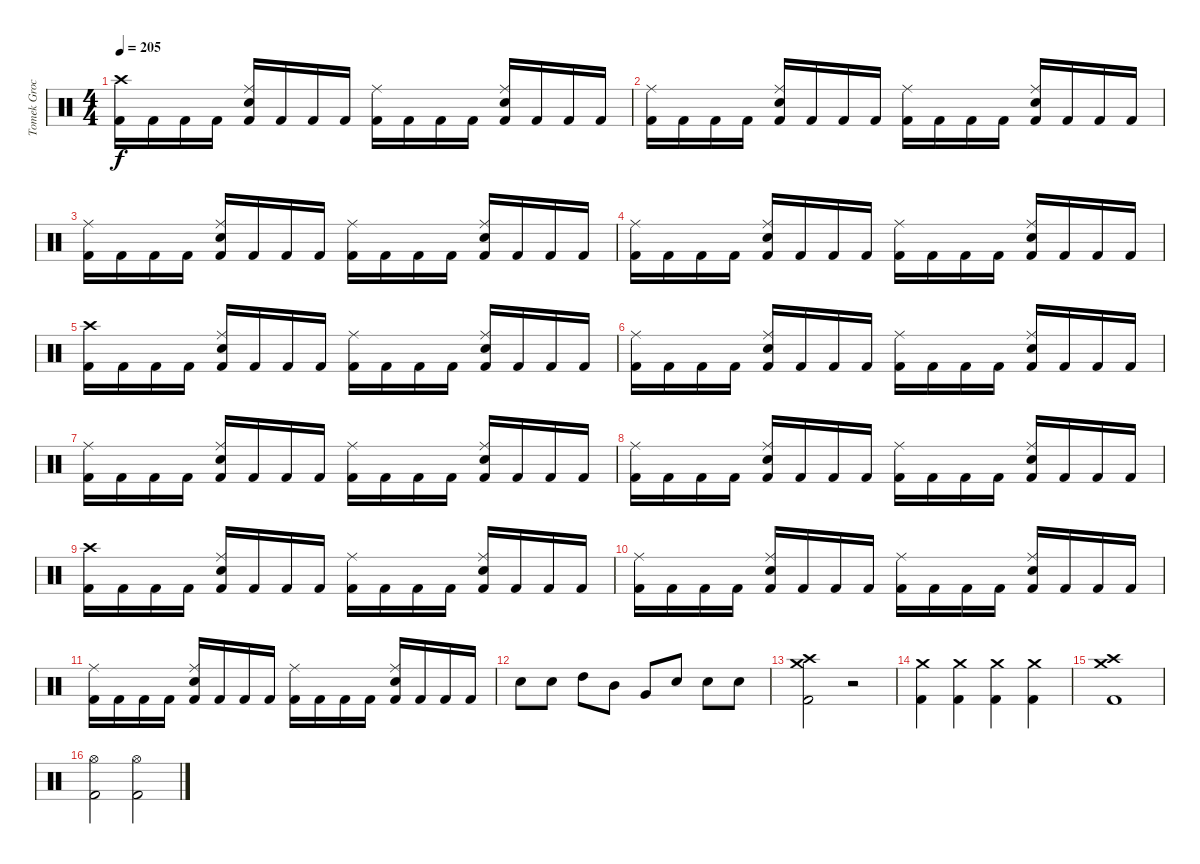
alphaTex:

\track ("Tomek Grochowski" "Tomek Groc") {instrument percussion}
\staff {score}
\articulation defaults
\ts (4 4)
\tempo 205
\clef neutral
\ks c
("Crash high (hit)" "Kick (hit) 2").16{dy f} "Kick (hit) 2".16 "Kick (hit) 2".16 "Kick (hit) 2".16 ("Ride (middle)" "Electric Snare (hit)" "Kick (hit) 2").16 "Kick (hit) 2".16 "Kick (hit) 2".16 "Kick (hit) 2".16 ("Ride (middle)" "Kick (hit) 2").16 "Kick (hit) 2".16 "Kick (hit) 2".16 "Kick (hit) 2".16 ("Ride (middle)" "Electric Snare (hit)" "Kick (hit) 2").16 "Kick (hit) 2".16 "Kick (hit) 2".16 "Kick (hit) 2".16 |
("Ride (middle)" "Kick (hit) 2").16 "Kick (hit) 2".16 "Kick (hit) 2".16 "Kick (hit) 2".16 ("Ride (middle)" "Electric Snare (hit)" "Kick (hit) 2").16 "Kick (hit) 2".16 "Kick (hit) 2".16 "Kick (hit) 2".16 ("Ride (middle)" "Kick (hit) 2").16 "Kick (hit) 2".16 "Kick (hit) 2".16 "Kick (hit) 2".16 ("Ride (middle)" "Electric Snare (hit)" "Kick (hit) 2").16 "Kick (hit) 2".16 "Kick (hit) 2".16 "Kick (hit) 2".16 |
("Ride (middle)" "Kick (hit) 2").16 "Kick (hit) 2".16 "Kick (hit) 2".16 "Kick (hit) 2".16 ("Ride (middle)" "Electric Snare (hit)" "Kick (hit) 2").16 "Kick (hit) 2".16 "Kick (hit) 2".16 "Kick (hit) 2".16 ("Ride (middle)" "Kick (hit) 2").16 "Kick (hit) 2".16 "Kick (hit) 2".16 "Kick (hit) 2".16 ("Ride (middle)" "Electric Snare (hit)" "Kick (hit) 2").16 "Kick (hit) 2".16 "Kick (hit) 2".16 "Kick (hit) 2".16 |
("Ride (middle)" "Kick (hit) 2").16 "Kick (hit) 2".16 "Kick (hit) 2".16 "Kick (hit) 2".16 ("Ride (middle)" "Electric Snare (hit)" "Kick (hit) 2").16 "Kick (hit) 2".16 "Kick (hit) 2".16 "Kick (hit) 2".16 ("Ride (middle)" "Kick (hit) 2").16 "Kick (hit) 2".16 "Kick (hit) 2".16 "Kick (hit) 2".16 ("Ride (middle)" "Electric Snare (hit)" "Kick (hit) 2").16 "Kick (hit) 2".16 "Kick (hit) 2".16 "Kick (hit) 2".16 |
("Crash high (hit)" "Kick (hit) 2").16 "Kick (hit) 2".16 "Kick (hit) 2".16 "Kick (hit) 2".16 ("Ride (middle)" "Electric Snare (hit)" "Kick (hit) 2").16 "Kick (hit) 2".16 "Kick (hit) 2".16 "Kick (hit) 2".16 ("Ride (middle)" "Kick (hit) 2").16 "Kick (hit) 2".16 "Kick (hit) 2".16 "Kick (hit) 2".16 ("Ride (middle)" "Electric Snare (hit)" "Kick (hit) 2").16 "Kick (hit) 2".16 "Kick (hit) 2".16 "Kick (hit) 2".16 |
("Ride (middle)" "Kick (hit) 2").16 "Kick (hit) 2".16 "Kick (hit) 2".16 "Kick (hit) 2".16 ("Ride (middle)" "Electric Snare (hit)" "Kick (hit) 2").16 "Kick (hit) 2".16 "Kick (hit) 2".16 "Kick (hit) 2".16 ("Ride (middle)" "Kick (hit) 2").16 "Kick (hit) 2".16 "Kick (hit) 2".16 "Kick (hit) 2".16 ("Ride (middle)" "Electric Snare (hit)" "Kick (hit) 2").16 "Kick (hit) 2".16 "Kick (hit) 2".16 "Kick (hit) 2".16 |
("Ride (middle)" "Kick (hit) 2").16 "Kick (hit) 2".16 "Kick (hit) 2".16 "Kick (hit) 2".16 ("Ride (middle)" "Electric Snare (hit)" "Kick (hit) 2").16 "Kick (hit) 2".16 "Kick (hit) 2".16 "Kick (hit) 2".16 ("Ride (middle)" "Kick (hit) 2").16 "Kick (hit) 2".16 "Kick (hit) 2".16 "Kick (hit) 2".16 ("Ride (middle)" "Electric Snare (hit)" "Kick (hit) 2").16 "Kick (hit) 2".16 "Kick (hit) 2".16 "Kick (hit) 2".16 |
("Ride (middle)" "Kick (hit) 2").16 "Kick (hit) 2".16 "Kick (hit) 2".16 "Kick (hit) 2".16 ("Ride (middle)" "Electric Snare (hit)" "Kick (hit) 2").16 "Kick (hit) 2".16 "Kick (hit) 2".16 "Kick (hit) 2".16 ("Ride (middle)" "Kick (hit) 2").16 "Kick (hit) 2".16 "Kick (hit) 2".16 "Kick (hit) 2".16 ("Ride (middle)" "Electric Snare (hit)" "Kick (hit) 2").16 "Kick (hit) 2".16 "Kick (hit) 2".16 "Kick (hit) 2".16 |
("Crash high (hit)" "Kick (hit) 2").16 "Kick (hit) 2".16 "Kick (hit) 2".16 "Kick (hit) 2".16 ("Ride (middle)" "Electric Snare (hit)" "Kick (hit) 2").16 "Kick (hit) 2".16 "Kick (hit) 2".16 "Kick (hit) 2".16 ("Ride (middle)" "Kick (hit) 2").16 "Kick (hit) 2".16 "Kick (hit) 2".16 "Kick (hit) 2".16 ("Ride (middle)" "Electric Snare (hit)" "Kick (hit) 2").16 "Kick (hit) 2".16 "Kick (hit) 2".16 "Kick (hit) 2".16 |
("Ride (middle)" "Kick (hit) 2").16 "Kick (hit) 2".16 "Kick (hit) 2".16 "Kick (hit) 2".16 ("Ride (middle)" "Electric Snare (hit)" "Kick (hit) 2").16 "Kick (hit) 2".16 "Kick (hit) 2".16 "Kick (hit) 2".16 ("Ride (middle)" "Kick (hit) 2").16 "Kick (hit) 2".16 "Kick (hit) 2".16 "Kick (hit) 2".16 ("Ride (middle)" "Electric Snare (hit)" "Kick (hit) 2").16 "Kick (hit) 2".16 "Kick (hit) 2".16 "Kick (hit) 2".16 |
("Ride (middle)" "Kick (hit) 2").16 "Kick (hit) 2".16 "Kick (hit) 2".16 "Kick (hit) 2".16 ("Ride (middle)" "Electric Snare (hit)" "Kick (hit) 2").16 "Kick (hit) 2".16 "Kick (hit) 2".16 "Kick (hit) 2".16 ("Ride (middle)" "Kick (hit) 2").16 "Kick (hit) 2".16 "Kick (hit) 2".16 "Kick (hit) 2".16 ("Ride (middle)" "Electric Snare (hit)" "Kick (hit) 2").16 "Kick (hit) 2".16 "Kick (hit) 2".16 "Kick (hit) 2".16 |
"Electric Snare (hit)".8 "Electric Snare (hit)".8 "High Tom (hit)".8 "Mid Tom (hit)".8 "Very Low Tom (hit)".8 "Electric Snare (hit)".8 "Electric Snare (hit)".8 "Electric Snare (hit)".8 |
("Crash high (hit)" "Crash medium (hit)" "Kick (hit) 2").2 r.2 |
("Crash medium (hit)" "Kick (hit) 2").4 ("Crash medium (hit)" "Kick (hit) 2").4 ("Crash medium (hit)" "Kick (hit) 2").4 ("Crash medium (hit)" "Kick (hit) 2").4 |
("Crash high (hit)" "Crash medium (hit)" "Kick (hit) 2").1 |
("Hi-Hat (open)" "Kick (hit) 2").2 ("Hi-Hat (open)" "Kick (hit) 2").2
